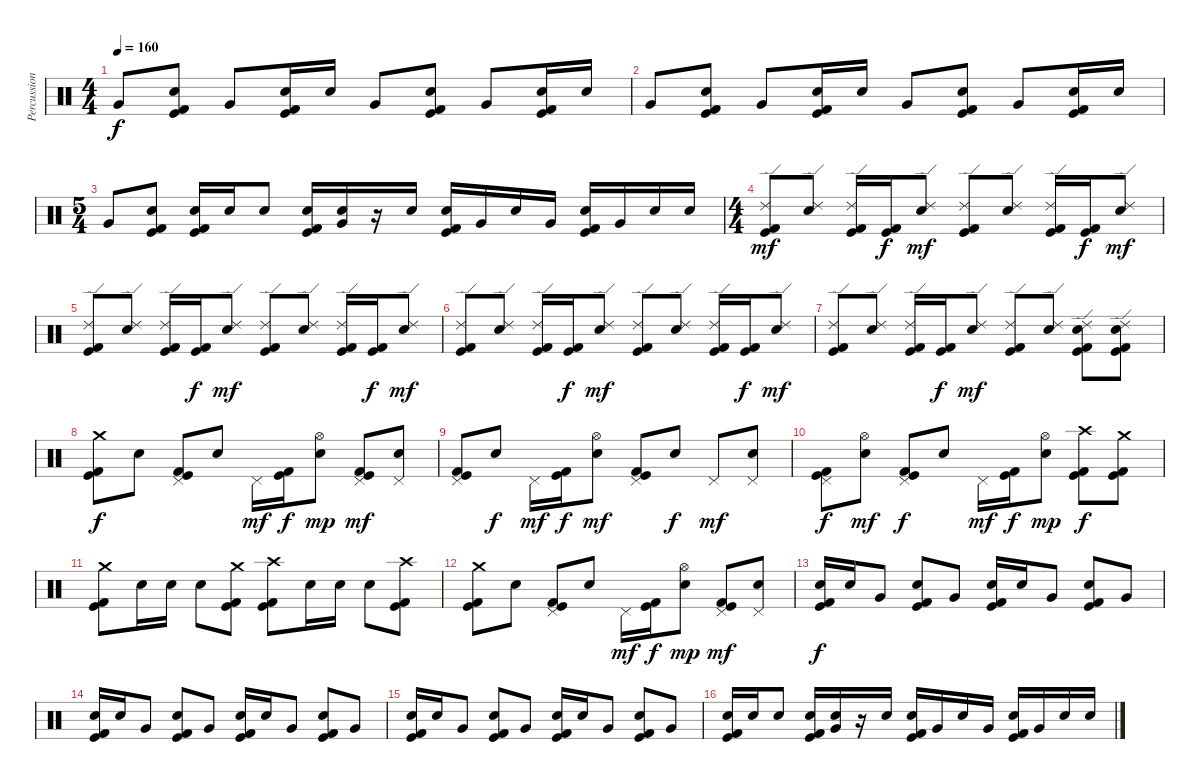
\track ("Percussions" "Percussion") {instrument percussion}
\staff {score}
\articulation defaults
\ts (4 4)
\tempo 160
\clef neutral
\ks c "Very Low Tom (hit)".8{dy f}
("Electric Snare (hit)" "Kick (hit)" "Kick (hit) 2").8 "Very Low Tom (hit)".8 ("Electric Snare (hit)" "Kick (hit)" "Kick (hit) 2").16 "Electric Snare (hit)".16 "Very Low Tom (hit)".8 ("Electric Snare (hit)" "Kick (hit)" "Kick (hit) 2").8 "Very Low Tom (hit)".8 ("Electric Snare (hit)" "Kick (hit)" "Kick (hit) 2").16 "Electric Snare (hit)".16 |
"Very Low Tom (hit)".8 ("Electric Snare (hit)" "Kick (hit)" "Kick (hit) 2").8 "Very Low Tom (hit)".8 ("Electric Snare (hit)" "Kick (hit)" "Kick (hit) 2").16 "Electric Snare (hit)".16 "Very Low Tom (hit)".8 ("Electric Snare (hit)" "Kick (hit)" "Kick (hit) 2").8 "Very Low Tom (hit)".8 ("Electric Snare (hit)" "Kick (hit)" "Kick (hit) 2").16 "Electric Snare (hit)".16 |
\ts (5 4)
"Very Low Tom (hit)".8 ("Electric Snare (hit)" "Kick (hit)" "Kick (hit) 2").8 ("Electric Snare (hit)" "Kick (hit)" "Kick (hit) 2").16 "Electric Snare (hit)".16 "Electric Snare (hit)".8 ("Electric Snare (hit)" "Kick (hit)" "Kick (hit) 2").16 ("Electric Snare (hit)" "Very Low Tom (hit)").16 r.16 "Electric Snare (hit)".16 ("Electric Snare (hit)" "Kick (hit)" "Kick (hit) 2").16 "Very Low Tom (hit)".16 "Electric Snare (hit)".16 "Very Low Tom (hit)".16 ("Electric Snare (hit)" "Kick (hit)" "Kick (hit) 2").16 "Very Low Tom (hit)".16 "Electric Snare (hit)".16 "Electric Snare (hit)".16 |
\ts (4 4)
("Ride (edge) 2" "Kick (hit)" "Kick (hit) 2").8{dy mf} ("Ride (edge) 2" "Electric Snare (hit)").8 ("Ride (edge) 2" "Kick (hit)" "Kick (hit) 2").16 ("Kick (hit)" "Kick (hit) 2").16{dy f} ("Ride (edge) 2" "Electric Snare (hit)").8{dy mf} ("Ride (edge) 2" "Kick (hit)" "Kick (hit) 2").8 ("Ride (edge) 2" "Electric Snare (hit)").8 ("Ride (edge) 2" "Kick (hit)" "Kick (hit) 2").16 ("Kick (hit)" "Kick (hit) 2").16{dy f} ("Ride (edge) 2" "Electric Snare (hit)").8{dy mf} |
("Ride (edge) 2" "Kick (hit)" "Kick (hit) 2").8 ("Ride (edge) 2" "Electric Snare (hit)").8 ("Ride (edge) 2" "Kick (hit)" "Kick (hit) 2").16 ("Kick (hit)" "Kick (hit) 2").16{dy f} ("Ride (edge) 2" "Electric Snare (hit)").8{dy mf} ("Ride (edge) 2" "Kick (hit)" "Kick (hit) 2").8 ("Ride (edge) 2" "Electric Snare (hit)").8 ("Ride (edge) 2" "Kick (hit)" "Kick (hit) 2").16 ("Kick (hit)" "Kick (hit) 2").16{dy f} ("Ride (edge) 2" "Electric Snare (hit)").8{dy mf} |
("Ride (edge) 2" "Kick (hit)" "Kick (hit) 2").8 ("Ride (edge) 2" "Electric Snare (hit)").8 ("Ride (edge) 2" "Kick (hit)" "Kick (hit) 2").16 ("Kick (hit)" "Kick (hit) 2").16{dy f} ("Ride (edge) 2" "Electric Snare (hit)").8{dy mf} ("Ride (edge) 2" "Kick (hit)" "Kick (hit) 2").8 ("Ride (edge) 2" "Electric Snare (hit)").8 ("Ride (edge) 2" "Kick (hit)" "Kick (hit) 2").16 ("Kick (hit)" "Kick (hit) 2").16{dy f} ("Ride (edge) 2" "Electric Snare (hit)").8{dy mf} |
("Ride (edge) 2" "Kick (hit)" "Kick (hit) 2").8 ("Ride (edge) 2" "Electric Snare (hit)").8 ("Ride (edge) 2" "Kick (hit)" "Kick (hit) 2").16 ("Kick (hit)" "Kick (hit) 2").16{dy f} ("Ride (edge) 2" "Electric Snare (hit)").8{dy mf} ("Ride (edge) 2" "Kick (hit)" "Kick (hit) 2").8 ("Ride (edge) 2" "Electric Snare (hit)").8 ("Ride (edge) 2" "Electric Snare (hit)" "Kick (hit)" "Kick (hit) 2").8 ("Ride (edge) 2" "Electric Snare (hit)" "Kick (hit)" "Kick (hit) 2").8 |
("Crash medium (hit)" "Kick (hit)" "Kick (hit) 2").8{dy f} "Electric Snare (hit)".8 ("Pedal Hi-Hat (hit)" "Kick (hit)" "Kick (hit) 2").8 "Electric Snare (hit)".8 "Pedal Hi-Hat (hit)".16{dy mf} ("Kick (hit)" "Kick (hit) 2").16{dy f} ("Hi-Hat (open)" "Electric Snare (hit)").8{dy mp} ("Pedal Hi-Hat (hit)" "Kick (hit)" "Kick (hit) 2").8{dy mf} ("Pedal Hi-Hat (hit)" "Electric Snare (hit)").8 |
("Pedal Hi-Hat (hit)" "Kick (hit)" "Kick (hit) 2").8 "Electric Snare (hit)".8{dy f} "Pedal Hi-Hat (hit)".16{dy mf} ("Kick (hit)" "Kick (hit) 2").16{dy f} ("Hi-Hat (open)" "Electric Snare (hit)").8{dy mf} ("Pedal Hi-Hat (hit)" "Kick (hit)" "Kick (hit) 2").8 "Electric Snare (hit)".8{dy f} "Pedal Hi-Hat (hit)".8{dy mf} ("Pedal Hi-Hat (hit)" "Electric Snare (hit)").8 |
("Pedal Hi-Hat (hit)" "Kick (hit)" "Kick (hit) 2").8{dy f} ("Hi-Hat (open)" "Electric Snare (hit)").8{dy mf} ("Pedal Hi-Hat (hit)" "Kick (hit)" "Kick (hit) 2").8{dy f} "Electric Snare (hit)".8 "Pedal Hi-Hat (hit)".16{dy mf} ("Kick (hit)" "Kick (hit) 2").16{dy f} ("Hi-Hat (open)" "Electric Snare (hit)").8{dy mp} ("Crash high (hit)" "Kick (hit)" "Kick (hit) 2").8{dy f} ("Crash medium (hit)" "Kick (hit)" "Kick (hit) 2").8 |
("Crash medium (hit)" "Kick (hit)" "Kick (hit) 2").8 "Electric Snare (hit)".16 "Electric Snare (hit)".16 "Electric Snare (hit)".8 ("Crash medium (hit)" "Kick (hit)" "Kick (hit) 2").8 ("Crash high (hit)" "Kick (hit)" "Kick (hit) 2").8 "Electric Snare (hit)".16 "Electric Snare (hit)".16 "Electric Snare (hit)".8 ("Crash high (hit)" "Kick (hit)" "Kick (hit) 2").8 |
("Crash medium (hit)" "Kick (hit)" "Kick (hit) 2").8 "Electric Snare (hit)".8 ("Pedal Hi-Hat (hit)" "Kick (hit)" "Kick (hit) 2").8 "Electric Snare (hit)".8 "Pedal Hi-Hat (hit)".16{dy mf} ("Kick (hit)" "Kick (hit) 2").16{dy f} ("Hi-Hat (open)" "Electric Snare (hit)").8{dy mp} ("Pedal Hi-Hat (hit)" "Kick (hit)" "Kick (hit) 2").8{dy mf} ("Pedal Hi-Hat (hit)" "Electric Snare (hit)").8 |
("Electric Snare (hit)" "Kick (hit)" "Kick (hit) 2").16{dy f} "Electric Snare (hit)".16 "Very Low Tom (hit)".8 ("Electric Snare (hit)" "Kick (hit)" "Kick (hit) 2").8 "Very Low Tom (hit)".8 ("Electric Snare (hit)" "Kick (hit)" "Kick (hit) 2").16 "Electric Snare (hit)".16 "Very Low Tom (hit)".8 ("Electric Snare (hit)" "Kick (hit)" "Kick (hit) 2").8 "Very Low Tom (hit)".8 |
("Electric Snare (hit)" "Kick (hit)" "Kick (hit) 2").16 "Electric Snare (hit)".16 "Very Low Tom (hit)".8 ("Electric Snare (hit)" "Kick (hit)" "Kick (hit) 2").8 "Very Low Tom (hit)".8 ("Electric Snare (hit)" "Kick (hit)" "Kick (hit) 2").16 "Electric Snare (hit)".16 "Very Low Tom (hit)".8 ("Electric Snare (hit)" "Kick (hit)" "Kick (hit) 2").8 "Very Low Tom (hit)".8 |
("Electric Snare (hit)" "Kick (hit)" "Kick (hit) 2").16 "Electric Snare (hit)".16 "Very Low Tom (hit)".8 ("Electric Snare (hit)" "Kick (hit)" "Kick (hit) 2").8 "Very Low Tom (hit)".8 ("Electric Snare (hit)" "Kick (hit)" "Kick (hit) 2").16 "Electric Snare (hit)".16 "Very Low Tom (hit)".8 ("Electric Snare (hit)" "Kick (hit)" "Kick (hit) 2").8 "Very Low Tom (hit)".8 |
("Electric Snare (hit)" "Kick (hit)" "Kick (hit) 2").16 "Electric Snare (hit)".16 "Electric Snare (hit)".8 ("Electric Snare (hit)" "Kick (hit)" "Kick (hit) 2").16 ("Electric Snare (hit)" "Very Low Tom (hit)").16 r.16 "Electric Snare (hit)".16 ("Electric Snare (hit)" "Kick (hit)" "Kick (hit) 2").16 "Very Low Tom (hit)".16 "Electric Snare (hit)".16 "Very Low Tom (hit)".16 ("Electric Snare (hit)" "Kick (hit)" "Kick (hit) 2").16 "Very Low Tom (hit)".16 "Electric Snare (hit)".16 "Electric Snare (hit)".16
